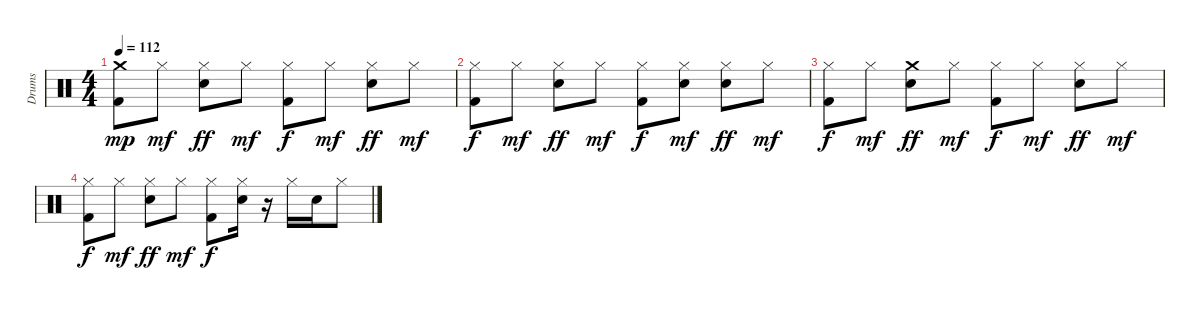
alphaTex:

\track ("Drums" "Drums") {instrument percussion}
\staff {score}
\articulation defaults
\ts (4 4)
\tempo 112
\clef neutral
\ks c
("Crash medium (hit)" "Kick (hit) 2").8{dy mp} "Hi-Hat (closed)".8{dy mf} ("Hi-Hat (closed)" "Snare (hit) 2").8{dy ff} "Hi-Hat (closed)".8{dy mf} ("Hi-Hat (closed)" "Kick (hit) 2").8{dy f} "Hi-Hat (closed)".8{dy mf} ("Hi-Hat (closed)" "Snare (hit) 2").8{dy ff} "Hi-Hat (closed)".8{dy mf} |
("Hi-Hat (closed)" "Kick (hit) 2").8{dy f} "Hi-Hat (closed)".8{dy mf} ("Hi-Hat (closed)" "Snare (hit) 2").8{dy ff} "Hi-Hat (closed)".8{dy mf} ("Hi-Hat (closed)" "Kick (hit) 2").8{dy f} ("Hi-Hat (closed)" "Snare (hit) 2").8{dy mf} ("Hi-Hat (closed)" "Snare (hit) 2").8{dy ff} "Hi-Hat (closed)".8{dy mf} |
("Hi-Hat (closed)" "Kick (hit) 2").8{dy f} "Hi-Hat (closed)".8{dy mf} ("Crash medium (hit)" "Snare (hit) 2").8{dy ff} "Hi-Hat (closed)".8{dy mf} ("Hi-Hat (closed)" "Kick (hit) 2").8{dy f} "Hi-Hat (closed)".8{dy mf} ("Hi-Hat (closed)" "Snare (hit) 2").8{dy ff} "Hi-Hat (closed)".8{dy mf} |
("Hi-Hat (closed)" "Kick (hit) 2").8{dy f} "Hi-Hat (closed)".8{dy mf} ("Hi-Hat (closed)" "Snare (hit) 2").8{dy ff} "Hi-Hat (closed)".8{dy mf} ("Hi-Hat (closed)" "Kick (hit) 2").8{dy f} ("Hi-Hat (closed)" "Snare (hit) 2").16 r.16 "Hi-Hat (closed)".16 "Snare (hit) 2".16 "Hi-Hat (closed)".8
